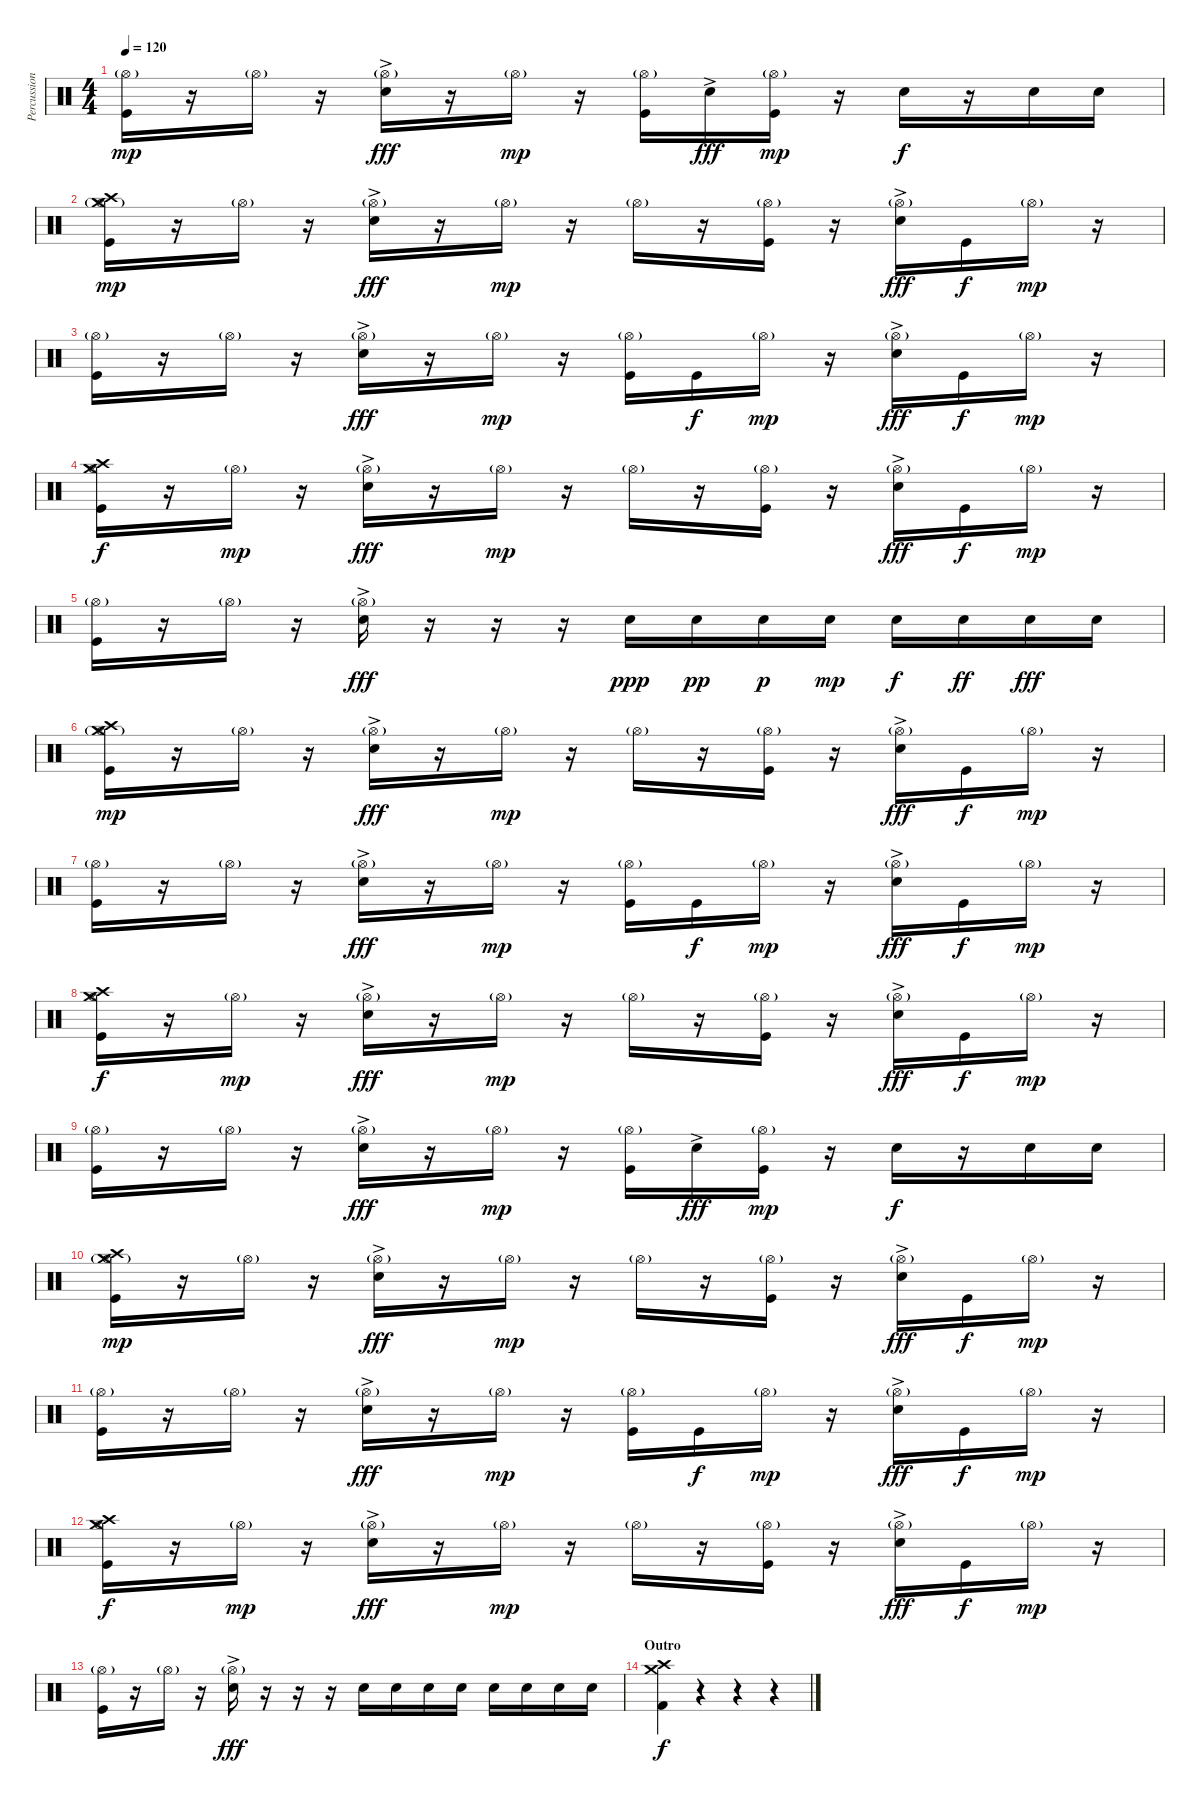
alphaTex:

\track ("Percussions" "Percussion") {instrument percussion}
\staff {score}
\articulation defaults
\ts (4 4)
\tempo 120
\clef neutral
\ks c
("Hi-Hat (open)"{g} "Kick (hit)").16{dy mp} r.16 "Hi-Hat (open)"{g}.16 r.16 ("Hi-Hat (open)"{g} "Electric Snare (hit)"{ac}).16{dy fff} r.16 "Hi-Hat (open)"{g}.16{dy mp} r.16 ("Hi-Hat (open)"{g} "Kick (hit)").16 "Electric Snare (hit)"{ac}.16{dy fff} ("Hi-Hat (open)"{g} "Kick (hit)").16{dy mp} r.16 "Electric Snare (hit)".16{dy f} r.16 "Electric Snare (hit)".16 "Electric Snare (hit)".16 |
("Crash high (hit)" "Hi-Hat (open)"{g} "Crash medium (hit)" "Kick (hit)").16{dy mp} r.16 "Hi-Hat (open)"{g}.16 r.16 ("Hi-Hat (open)"{g} "Electric Snare (hit)"{ac}).16{dy fff} r.16 "Hi-Hat (open)"{g}.16{dy mp} r.16 "Hi-Hat (open)"{g}.16 r.16 ("Hi-Hat (open)"{g} "Kick (hit)").16 r.16 ("Hi-Hat (open)"{g} "Electric Snare (hit)"{ac}).16{dy fff} "Kick (hit)".16{dy f} "Hi-Hat (open)"{g}.16{dy mp} r.16 |
("Hi-Hat (open)"{g} "Kick (hit)").16 r.16 "Hi-Hat (open)"{g}.16 r.16 ("Hi-Hat (open)"{g} "Electric Snare (hit)"{ac}).16{dy fff} r.16 "Hi-Hat (open)"{g}.16{dy mp} r.16 ("Hi-Hat (open)"{g} "Kick (hit)").16 "Kick (hit)".16{dy f} "Hi-Hat (open)"{g}.16{dy mp} r.16 ("Hi-Hat (open)"{g} "Electric Snare (hit)"{ac}).16{dy fff} "Kick (hit)".16{dy f} "Hi-Hat (open)"{g}.16{dy mp} r.16 |
("Crash high (hit)" "Hi-Hat (open)" "Crash medium (hit)" "Kick (hit)").16{dy f} r.16 "Hi-Hat (open)"{g}.16{dy mp} r.16 ("Hi-Hat (open)"{g} "Electric Snare (hit)"{ac}).16{dy fff} r.16 "Hi-Hat (open)"{g}.16{dy mp} r.16 "Hi-Hat (open)"{g}.16 r.16 ("Hi-Hat (open)"{g} "Kick (hit)").16 r.16 ("Hi-Hat (open)"{g} "Electric Snare (hit)"{ac}).16{dy fff} "Kick (hit)".16{dy f} "Hi-Hat (open)"{g}.16{dy mp} r.16 |
("Hi-Hat (open)"{g} "Kick (hit)").16 r.16 "Hi-Hat (open)"{g}.16 r.16 ("Hi-Hat (open)"{g} "Electric Snare (hit)"{ac}).16{dy fff} r.16 r.16 r.16 "Electric Snare (hit)".16{dy ppp} "Electric Snare (hit)".16{dy pp} "Electric Snare (hit)".16{dy p} "Electric Snare (hit)".16{dy mp} "Electric Snare (hit)".16{dy f} "Electric Snare (hit)".16{dy ff} "Electric Snare (hit)".16{dy fff} "Electric Snare (hit)".16 |
("Crash high (hit)" "Hi-Hat (open)"{g} "Crash medium (hit)" "Kick (hit)").16{dy mp} r.16 "Hi-Hat (open)"{g}.16 r.16 ("Hi-Hat (open)"{g} "Electric Snare (hit)"{ac}).16{dy fff} r.16 "Hi-Hat (open)"{g}.16{dy mp} r.16 "Hi-Hat (open)"{g}.16 r.16 ("Hi-Hat (open)"{g} "Kick (hit)").16 r.16 ("Hi-Hat (open)"{g} "Electric Snare (hit)"{ac}).16{dy fff} "Kick (hit)".16{dy f} "Hi-Hat (open)"{g}.16{dy mp} r.16 |
("Hi-Hat (open)"{g} "Kick (hit)").16 r.16 "Hi-Hat (open)"{g}.16 r.16 ("Hi-Hat (open)"{g} "Electric Snare (hit)"{ac}).16{dy fff} r.16 "Hi-Hat (open)"{g}.16{dy mp} r.16 ("Hi-Hat (open)"{g} "Kick (hit)").16 "Kick (hit)".16{dy f} "Hi-Hat (open)"{g}.16{dy mp} r.16 ("Hi-Hat (open)"{g} "Electric Snare (hit)"{ac}).16{dy fff} "Kick (hit)".16{dy f} "Hi-Hat (open)"{g}.16{dy mp} r.16 |
("Crash high (hit)" "Hi-Hat (open)" "Crash medium (hit)" "Kick (hit)").16{dy f} r.16 "Hi-Hat (open)"{g}.16{dy mp} r.16 ("Hi-Hat (open)"{g} "Electric Snare (hit)"{ac}).16{dy fff} r.16 "Hi-Hat (open)"{g}.16{dy mp} r.16 "Hi-Hat (open)"{g}.16 r.16 ("Hi-Hat (open)"{g} "Kick (hit)").16 r.16 ("Hi-Hat (open)"{g} "Electric Snare (hit)"{ac}).16{dy fff} "Kick (hit)".16{dy f} "Hi-Hat (open)"{g}.16{dy mp} r.16 |
("Hi-Hat (open)"{g} "Kick (hit)").16 r.16 "Hi-Hat (open)"{g}.16 r.16 ("Hi-Hat (open)"{g} "Electric Snare (hit)"{ac}).16{dy fff} r.16 "Hi-Hat (open)"{g}.16{dy mp} r.16 ("Hi-Hat (open)"{g} "Kick (hit)").16 "Electric Snare (hit)"{ac}.16{dy fff} ("Hi-Hat (open)"{g} "Kick (hit)").16{dy mp} r.16 "Electric Snare (hit)".16{dy f} r.16 "Electric Snare (hit)".16 "Electric Snare (hit)".16 |
("Crash high (hit)" "Hi-Hat (open)"{g} "Crash medium (hit)" "Kick (hit)").16{dy mp} r.16 "Hi-Hat (open)"{g}.16 r.16 ("Hi-Hat (open)"{g} "Electric Snare (hit)"{ac}).16{dy fff} r.16 "Hi-Hat (open)"{g}.16{dy mp} r.16 "Hi-Hat (open)"{g}.16 r.16 ("Hi-Hat (open)"{g} "Kick (hit)").16 r.16 ("Hi-Hat (open)"{g} "Electric Snare (hit)"{ac}).16{dy fff} "Kick (hit)".16{dy f} "Hi-Hat (open)"{g}.16{dy mp} r.16 |
("Hi-Hat (open)"{g} "Kick (hit)").16 r.16 "Hi-Hat (open)"{g}.16 r.16 ("Hi-Hat (open)"{g} "Electric Snare (hit)"{ac}).16{dy fff} r.16 "Hi-Hat (open)"{g}.16{dy mp} r.16 ("Hi-Hat (open)"{g} "Kick (hit)").16 "Kick (hit)".16{dy f} "Hi-Hat (open)"{g}.16{dy mp} r.16 ("Hi-Hat (open)"{g} "Electric Snare (hit)"{ac}).16{dy fff} "Kick (hit)".16{dy f} "Hi-Hat (open)"{g}.16{dy mp} r.16 |
("Crash high (hit)" "Hi-Hat (open)" "Crash medium (hit)" "Kick (hit)").16{dy f} r.16 "Hi-Hat (open)"{g}.16{dy mp} r.16 ("Hi-Hat (open)"{g} "Electric Snare (hit)"{ac}).16{dy fff} r.16 "Hi-Hat (open)"{g}.16{dy mp} r.16 "Hi-Hat (open)"{g}.16 r.16 ("Hi-Hat (open)"{g} "Kick (hit)").16 r.16 ("Hi-Hat (open)"{g} "Electric Snare (hit)"{ac}).16{dy fff} "Kick (hit)".16{dy f} "Hi-Hat (open)"{g}.16{dy mp} r.16 |
("Hi-Hat (open)"{g} "Kick (hit)").16 r.16 "Hi-Hat (open)"{g}.16 r.16 ("Hi-Hat (open)"{g} "Electric Snare (hit)"{ac}).16{dy fff} r.16 r.16 r.16 "Electric Snare (hit)".16 "Electric Snare (hit)".16 "Electric Snare (hit)".16 "Electric Snare (hit)".16 "Electric Snare (hit)".16 "Electric Snare (hit)".16 "Electric Snare (hit)".16 "Electric Snare (hit)".16 |
\section ("" "Outro")
("Crash medium (hit)" "Crash high (hit)" "Kick (hit) 2").4{dy f} r.4 r.4 r.4
